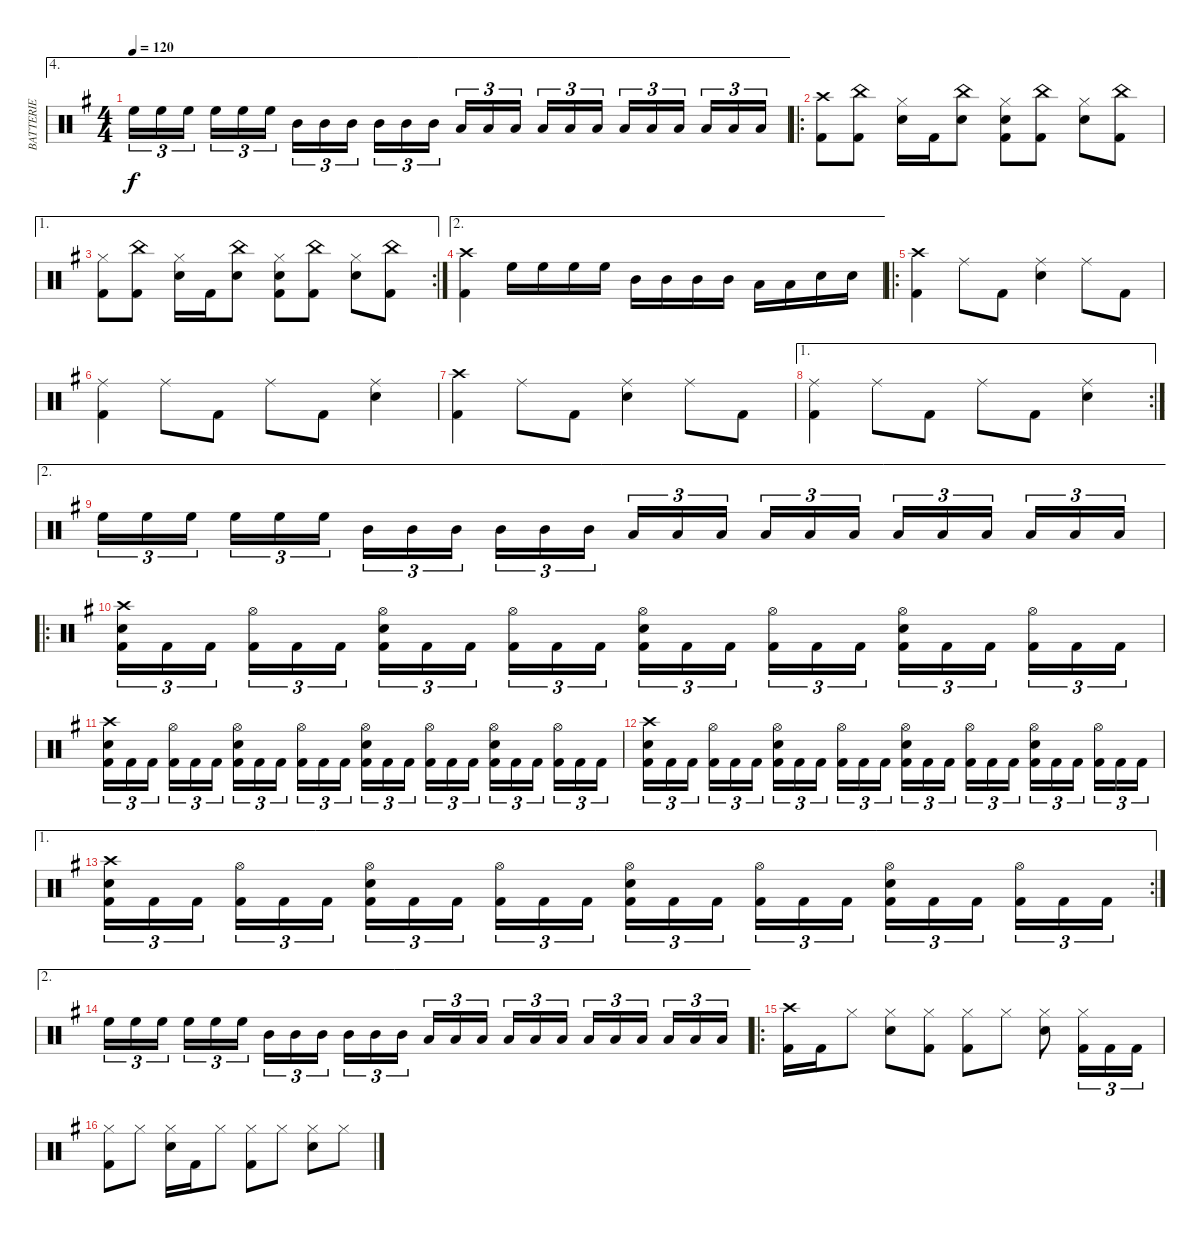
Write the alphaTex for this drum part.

\track ("BATTERIE" "BATTERIE") {instrument percussion}
\staff {score}
\articulation defaults
\ae 4
\ts (4 4)
\tempo 120
\clef neutral
\ks g "High Floor Tom (hit)".16{tu (3 2) dy f} "High Floor Tom (hit)".16{tu (3 2)} "High Floor Tom (hit)".16{tu (3 2)} "High Floor Tom (hit)".16{tu (3 2)} "High Floor Tom (hit)".16{tu (3 2)} "High Floor Tom (hit)".16{tu (3 2)} "Mid Tom (hit)".16{tu (3 2)} "Mid Tom (hit)".16{tu (3 2)} "Mid Tom (hit)".16{tu (3 2)} "Mid Tom (hit)".16{tu (3 2)} "Mid Tom (hit)".16{tu (3 2)} "Mid Tom (hit)".16{tu (3 2)} "Low Tom (hit)".16{tu (3 2)} "Low Tom (hit)".16{tu (3 2)} "Low Tom (hit)".16{tu (3 2)} "Low Tom (hit)".16{tu (3 2)} "Low Tom (hit)".16{tu (3 2)} "Low Tom (hit)".16{tu (3 2)} "Low Floor Tom (hit)".16{tu (3 2)} "Low Floor Tom (hit)".16{tu (3 2)} "Low Floor Tom (hit)".16{tu (3 2)} "Low Floor Tom (hit)".16{tu (3 2)} "Low Floor Tom (hit)".16{tu (3 2)} "Low Floor Tom (hit)".16{tu (3 2)}
|
\ro
("Crash high (hit)" "Kick (hit) 2").8 ("China (hit)" "Kick (hit) 2").8 ("Hi-Hat (closed)" "Snare (hit) 2").16 "Kick (hit) 2".16 ("China (hit)" "Snare (hit) 2").8 ("Hi-Hat (closed)" "Snare (hit) 2" "Kick (hit) 2").8 ("China (hit)" "Kick (hit) 2").8 ("Hi-Hat (closed)" "Snare (hit) 2").8 ("China (hit)" "Kick (hit) 2").8 |
\ae 1
\rc 2
("Hi-Hat (closed)" "Kick (hit) 2").8 ("China (hit)" "Kick (hit) 2").8 ("Hi-Hat (closed)" "Snare (hit) 2").16 "Kick (hit) 2".16 ("China (hit)" "Snare (hit) 2").8 ("Hi-Hat (closed)" "Snare (hit) 2" "Kick (hit) 2").8 ("China (hit)" "Kick (hit) 2").8 ("Hi-Hat (closed)" "Snare (hit) 2").8 ("China (hit)" "Kick (hit) 2").8 |
\ae 2
("Crash high (hit)" "Kick (hit) 2").4 "High Floor Tom (hit)".16 "High Floor Tom (hit)".16 "High Floor Tom (hit)".16 "High Floor Tom (hit)".16 "Mid Tom (hit)".16 "Mid Tom (hit)".16 "Mid Tom (hit)".16 "Mid Tom (hit)".16 "Low Tom (hit)".16 "Low Tom (hit)".16 "Snare (hit) 2".16 "Snare (hit) 2".16 |
\ro
("Crash high (hit)" "Kick (hit) 2").4 "Ride (middle)".8 "Kick (hit) 2".8 ("Ride (middle)" "Snare (hit) 2").4 "Ride (middle)".8 "Kick (hit) 2".8 |
("Ride (middle)" "Kick (hit) 2").4 "Ride (middle)".8 "Kick (hit) 2".8 "Ride (middle)".8 "Kick (hit) 2".8 ("Ride (middle)" "Snare (hit) 2").4 |
("Crash high (hit)" "Kick (hit) 2").4 "Ride (middle)".8 "Kick (hit) 2".8 ("Ride (middle)" "Snare (hit) 2").4 "Ride (middle)".8 "Kick (hit) 2".8 |
\ae 1
\rc 2
("Ride (middle)" "Kick (hit) 2").4 "Ride (middle)".8 "Kick (hit) 2".8 "Ride (middle)".8 "Kick (hit) 2".8 ("Ride (middle)" "Snare (hit) 2").4 |
\ae 2 "High Floor Tom (hit)".16{tu (3 2)} "High Floor Tom (hit)".16{tu (3 2)} "High Floor Tom (hit)".16{tu (3 2)} "High Floor Tom (hit)".16{tu (3 2)} "High Floor Tom (hit)".16{tu (3 2)} "High Floor Tom (hit)".16{tu (3 2)} "Mid Tom (hit)".16{tu (3 2)} "Mid Tom (hit)".16{tu (3 2)} "Mid Tom (hit)".16{tu (3 2)} "Mid Tom (hit)".16{tu (3 2)} "Mid Tom (hit)".16{tu (3 2)} "Mid Tom (hit)".16{tu (3 2)} "Low Tom (hit)".16{tu (3 2)} "Low Tom (hit)".16{tu (3 2)} "Low Tom (hit)".16{tu (3 2)} "Low Tom (hit)".16{tu (3 2)} "Low Tom (hit)".16{tu (3 2)} "Low Tom (hit)".16{tu (3 2)} "Low Floor Tom (hit)".16{tu (3 2)} "Low Floor Tom (hit)".16{tu (3 2)} "Low Floor Tom (hit)".16{tu (3 2)} "Low Floor Tom (hit)".16{tu (3 2)} "Low Floor Tom (hit)".16{tu (3 2)} "Low Floor Tom (hit)".16{tu (3 2)}
|
\ro
("Crash high (hit)" "Snare (hit) 2" "Kick (hit) 2").16{tu (3 2)} "Kick (hit) 2".16{tu (3 2)} "Kick (hit) 2".16{tu (3 2)} ("Hi-Hat (open)" "Kick (hit) 2").16{tu (3 2)} "Kick (hit) 2".16{tu (3 2)} "Kick (hit) 2".16{tu (3 2)} ("Hi-Hat (open)" "Snare (hit) 2" "Kick (hit) 2").16{tu (3 2)} "Kick (hit) 2".16{tu (3 2)} "Kick (hit) 2".16{tu (3 2)} ("Hi-Hat (open)" "Kick (hit) 2").16{tu (3 2)} "Kick (hit) 2".16{tu (3 2)} "Kick (hit) 2".16{tu (3 2)} ("Hi-Hat (open)" "Snare (hit) 2" "Kick (hit) 2").16{tu (3 2)} "Kick (hit) 2".16{tu (3 2)} "Kick (hit) 2".16{tu (3 2)} ("Hi-Hat (open)" "Kick (hit) 2").16{tu (3 2)} "Kick (hit) 2".16{tu (3 2)} "Kick (hit) 2".16{tu (3 2)} ("Hi-Hat (open)" "Snare (hit) 2" "Kick (hit) 2").16{tu (3 2)} "Kick (hit) 2".16{tu (3 2)} "Kick (hit) 2".16{tu (3 2)} ("Hi-Hat (open)" "Kick (hit) 2").16{tu (3 2)} "Kick (hit) 2".16{tu (3 2)} "Kick (hit) 2".16{tu (3 2)} |
("Crash high (hit)" "Snare (hit) 2" "Kick (hit) 2").16{tu (3 2)} "Kick (hit) 2".16{tu (3 2)} "Kick (hit) 2".16{tu (3 2)} ("Hi-Hat (open)" "Kick (hit) 2").16{tu (3 2)} "Kick (hit) 2".16{tu (3 2)} "Kick (hit) 2".16{tu (3 2)} ("Hi-Hat (open)" "Snare (hit) 2" "Kick (hit) 2").16{tu (3 2)} "Kick (hit) 2".16{tu (3 2)} "Kick (hit) 2".16{tu (3 2)} ("Hi-Hat (open)" "Kick (hit) 2").16{tu (3 2)} "Kick (hit) 2".16{tu (3 2)} "Kick (hit) 2".16{tu (3 2)} ("Hi-Hat (open)" "Snare (hit) 2" "Kick (hit) 2").16{tu (3 2)} "Kick (hit) 2".16{tu (3 2)} "Kick (hit) 2".16{tu (3 2)} ("Hi-Hat (open)" "Kick (hit) 2").16{tu (3 2)} "Kick (hit) 2".16{tu (3 2)} "Kick (hit) 2".16{tu (3 2)} ("Hi-Hat (open)" "Snare (hit) 2" "Kick (hit) 2").16{tu (3 2)} "Kick (hit) 2".16{tu (3 2)} "Kick (hit) 2".16{tu (3 2)} ("Hi-Hat (open)" "Kick (hit) 2").16{tu (3 2)} "Kick (hit) 2".16{tu (3 2)} "Kick (hit) 2".16{tu (3 2)} |
("Crash high (hit)" "Snare (hit) 2" "Kick (hit) 2").16{tu (3 2)} "Kick (hit) 2".16{tu (3 2)} "Kick (hit) 2".16{tu (3 2)} ("Hi-Hat (open)" "Kick (hit) 2").16{tu (3 2)} "Kick (hit) 2".16{tu (3 2)} "Kick (hit) 2".16{tu (3 2)} ("Hi-Hat (open)" "Snare (hit) 2" "Kick (hit) 2").16{tu (3 2)} "Kick (hit) 2".16{tu (3 2)} "Kick (hit) 2".16{tu (3 2)} ("Hi-Hat (open)" "Kick (hit) 2").16{tu (3 2)} "Kick (hit) 2".16{tu (3 2)} "Kick (hit) 2".16{tu (3 2)} ("Hi-Hat (open)" "Snare (hit) 2" "Kick (hit) 2").16{tu (3 2)} "Kick (hit) 2".16{tu (3 2)} "Kick (hit) 2".16{tu (3 2)} ("Hi-Hat (open)" "Kick (hit) 2").16{tu (3 2)} "Kick (hit) 2".16{tu (3 2)} "Kick (hit) 2".16{tu (3 2)} ("Hi-Hat (open)" "Snare (hit) 2" "Kick (hit) 2").16{tu (3 2)} "Kick (hit) 2".16{tu (3 2)} "Kick (hit) 2".16{tu (3 2)} ("Hi-Hat (open)" "Kick (hit) 2").16{tu (3 2)} "Kick (hit) 2".16{tu (3 2)} "Kick (hit) 2".16{tu (3 2)} |
\ae 1
\rc 2
("Crash high (hit)" "Snare (hit) 2" "Kick (hit) 2").16{tu (3 2)} "Kick (hit) 2".16{tu (3 2)} "Kick (hit) 2".16{tu (3 2)} ("Hi-Hat (open)" "Kick (hit) 2").16{tu (3 2)} "Kick (hit) 2".16{tu (3 2)} "Kick (hit) 2".16{tu (3 2)} ("Hi-Hat (open)" "Snare (hit) 2" "Kick (hit) 2").16{tu (3 2)} "Kick (hit) 2".16{tu (3 2)} "Kick (hit) 2".16{tu (3 2)} ("Hi-Hat (open)" "Kick (hit) 2").16{tu (3 2)} "Kick (hit) 2".16{tu (3 2)} "Kick (hit) 2".16{tu (3 2)} ("Hi-Hat (open)" "Snare (hit) 2" "Kick (hit) 2").16{tu (3 2)} "Kick (hit) 2".16{tu (3 2)} "Kick (hit) 2".16{tu (3 2)} ("Hi-Hat (open)" "Kick (hit) 2").16{tu (3 2)} "Kick (hit) 2".16{tu (3 2)} "Kick (hit) 2".16{tu (3 2)} ("Hi-Hat (open)" "Snare (hit) 2" "Kick (hit) 2").16{tu (3 2)} "Kick (hit) 2".16{tu (3 2)} "Kick (hit) 2".16{tu (3 2)} ("Hi-Hat (open)" "Kick (hit) 2").16{tu (3 2)} "Kick (hit) 2".16{tu (3 2)} "Kick (hit) 2".16{tu (3 2)} |
\ae 2 "High Floor Tom (hit)".16{tu (3 2)} "High Floor Tom (hit)".16{tu (3 2)} "High Floor Tom (hit)".16{tu (3 2)} "High Floor Tom (hit)".16{tu (3 2)} "High Floor Tom (hit)".16{tu (3 2)} "High Floor Tom (hit)".16{tu (3 2)} "Mid Tom (hit)".16{tu (3 2)} "Mid Tom (hit)".16{tu (3 2)} "Mid Tom (hit)".16{tu (3 2)} "Mid Tom (hit)".16{tu (3 2)} "Mid Tom (hit)".16{tu (3 2)} "Mid Tom (hit)".16{tu (3 2)} "Low Tom (hit)".16{tu (3 2)} "Low Tom (hit)".16{tu (3 2)} "Low Tom (hit)".16{tu (3 2)} "Low Tom (hit)".16{tu (3 2)} "Low Tom (hit)".16{tu (3 2)} "Low Tom (hit)".16{tu (3 2)} "Low Floor Tom (hit)".16{tu (3 2)} "Low Floor Tom (hit)".16{tu (3 2)} "Low Floor Tom (hit)".16{tu (3 2)} "Low Floor Tom (hit)".16{tu (3 2)} "Low Floor Tom (hit)".16{tu (3 2)} "Low Floor Tom (hit)".16{tu (3 2)}
|
\ro
("Crash high (hit)" "Kick (hit) 2").16 "Kick (hit) 2".16 "Hi-Hat (closed)".8 ("Hi-Hat (closed)" "Snare (hit) 2").8 ("Hi-Hat (closed)" "Kick (hit) 2").8 ("Hi-Hat (closed)" "Kick (hit) 2").8 "Hi-Hat (closed)".8 ("Hi-Hat (closed)" "Snare (hit) 2").8 ("Hi-Hat (closed)" "Kick (hit) 2").16{tu (3 2)} "Kick (hit) 2".16{tu (3 2)} "Kick (hit) 2".16{tu (3 2)} |
("Hi-Hat (closed)" "Kick (hit) 2").8 "Hi-Hat (closed)".8 ("Hi-Hat (closed)" "Snare (hit) 2").16 "Kick (hit) 2".16 "Hi-Hat (closed)".8 ("Hi-Hat (closed)" "Kick (hit) 2").8 "Hi-Hat (closed)".8 ("Hi-Hat (closed)" "Snare (hit) 2").8 "Hi-Hat (closed)".8
